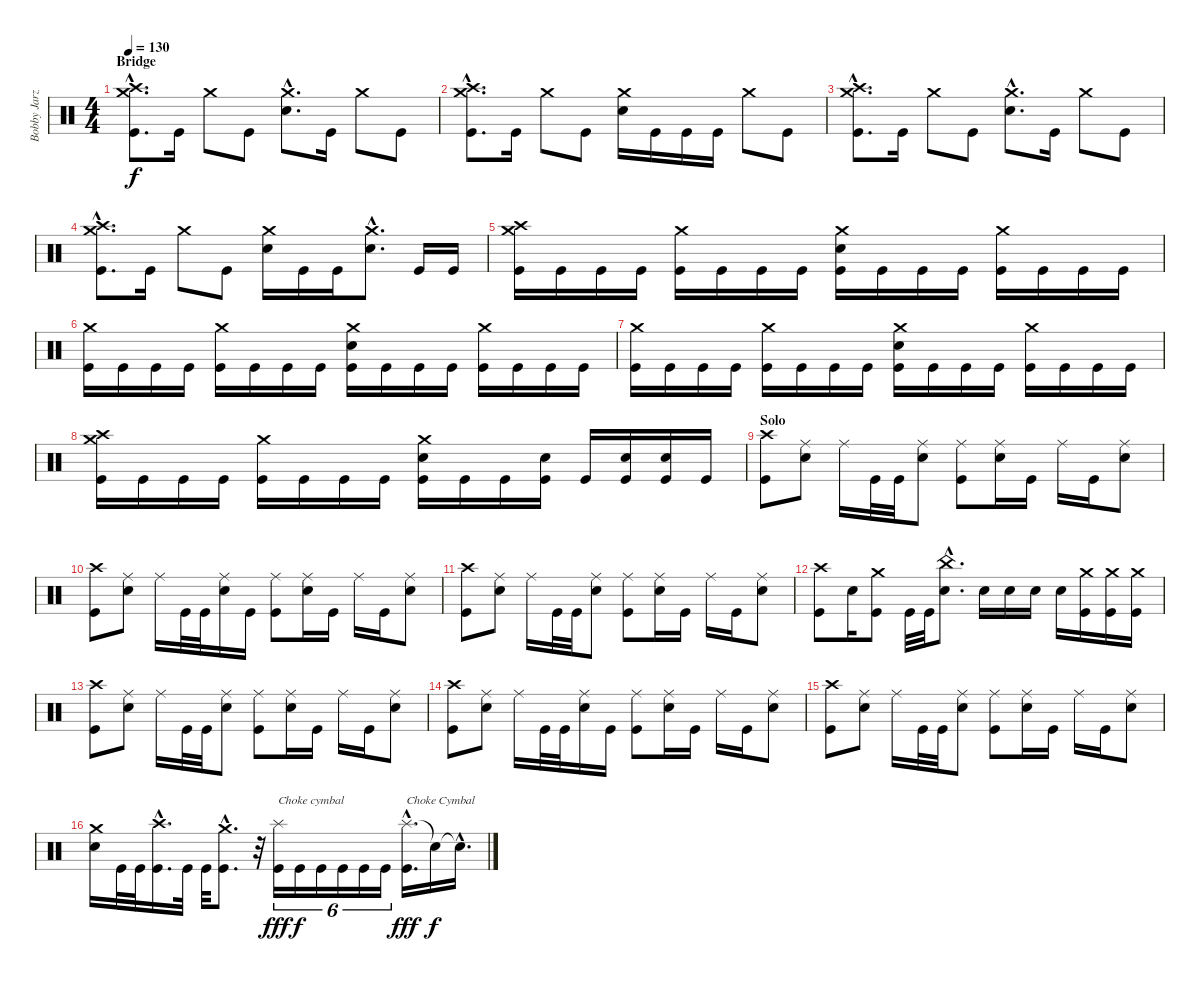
\track ("Bobby Jarzombek" "Bobby Jarz") {instrument percussion}
\staff {score}
\articulation defaults
\ts (4 4)
\section ("" "Bridge")
\tempo 130
\clef neutral
\ks c
("Crash high (hit)"{hac} "Crash medium (hit)"{hac} "Kick (hit)"{hac}).8{d dy f} "Kick (hit)".16 "Crash medium (hit)".8 "Kick (hit)".8 ("Crash medium (hit)"{hac} "Electric Snare (hit)"{hac}).8{d} "Kick (hit)".16 "Crash medium (hit)".8 "Kick (hit)".8 |
("Crash high (hit)"{hac} "Crash medium (hit)"{hac} "Kick (hit)"{hac}).8{d} "Kick (hit)".16 "Crash medium (hit)".8 "Kick (hit)".8 ("Crash medium (hit)" "Electric Snare (hit)").16 "Kick (hit)".16 "Kick (hit)".16 "Kick (hit)".16 "Crash medium (hit)".8 "Kick (hit)".8 |
("Crash high (hit)"{hac} "Crash medium (hit)"{hac} "Kick (hit)"{hac}).8{d} "Kick (hit)".16 "Crash medium (hit)".8 "Kick (hit)".8 ("Crash medium (hit)"{hac} "Electric Snare (hit)"{hac}).8{d} "Kick (hit)".16 "Crash medium (hit)".8 "Kick (hit)".8 |
("Crash high (hit)"{hac} "Crash medium (hit)"{hac} "Kick (hit)"{hac}).8{d} "Kick (hit)".16 "Crash medium (hit)".8 "Kick (hit)".8 ("Crash medium (hit)" "Electric Snare (hit)").16 "Kick (hit)".16 "Kick (hit)".16 ("Crash medium (hit)"{hac} "Electric Snare (hit)"{hac}).8{d} "Kick (hit)".16 "Kick (hit)".16 |
("Crash high (hit)" "Crash medium (hit)" "Kick (hit)").16 "Kick (hit)".16 "Kick (hit)".16 "Kick (hit)".16 ("Crash medium (hit)" "Kick (hit)").16 "Kick (hit)".16 "Kick (hit)".16 "Kick (hit)".16 ("Crash medium (hit)" "Electric Snare (hit)" "Kick (hit)").16 "Kick (hit)".16 "Kick (hit)".16 "Kick (hit)".16 ("Crash medium (hit)" "Kick (hit)").16 "Kick (hit)".16 "Kick (hit)".16 "Kick (hit)".16 |
("Crash medium (hit)" "Kick (hit)").16 "Kick (hit)".16 "Kick (hit)".16 "Kick (hit)".16 ("Crash medium (hit)" "Kick (hit)").16 "Kick (hit)".16 "Kick (hit)".16 "Kick (hit)".16 ("Crash medium (hit)" "Electric Snare (hit)" "Kick (hit)").16 "Kick (hit)".16 "Kick (hit)".16 "Kick (hit)".16 ("Crash medium (hit)" "Kick (hit)").16 "Kick (hit)".16 "Kick (hit)".16 "Kick (hit)".16 |
("Crash medium (hit)" "Kick (hit)").16 "Kick (hit)".16 "Kick (hit)".16 "Kick (hit)".16 ("Crash medium (hit)" "Kick (hit)").16 "Kick (hit)".16 "Kick (hit)".16 "Kick (hit)".16 ("Crash medium (hit)" "Electric Snare (hit)" "Kick (hit)").16 "Kick (hit)".16 "Kick (hit)".16 "Kick (hit)".16 ("Crash medium (hit)" "Kick (hit)").16 "Kick (hit)".16 "Kick (hit)".16 "Kick (hit)".16 |
("Crash high (hit)" "Crash medium (hit)" "Kick (hit)").16 "Kick (hit)".16 "Kick (hit)".16 "Kick (hit)".16 ("Crash medium (hit)" "Kick (hit)").16 "Kick (hit)".16 "Kick (hit)".16 "Kick (hit)".16 ("Crash medium (hit)" "Electric Snare (hit)" "Kick (hit)").16 "Kick (hit)".16 "Kick (hit)".16 ("Electric Snare (hit)" "Kick (hit)").16 "Kick (hit)".16 ("Electric Snare (hit)" "Kick (hit)").16 ("Electric Snare (hit)" "Kick (hit)").16 "Kick (hit)".16 |
\section ("" "Solo")
("Crash high (hit)" "Kick (hit)").8 ("Ride (middle)" "Electric Snare (hit)").8 "Ride (middle)".16 "Kick (hit)".32 "Kick (hit)".32 ("Ride (middle)" "Electric Snare (hit)").8 ("Ride (middle)" "Kick (hit)").8 ("Ride (middle)" "Electric Snare (hit)").16 "Kick (hit)".16 "Ride (middle)".16 "Kick (hit)".16 ("Ride (middle)" "Electric Snare (hit)").8 |
("Crash high (hit)" "Kick (hit)").8 ("Ride (middle)" "Electric Snare (hit)").8 "Ride (middle)".16 "Kick (hit)".32 "Kick (hit)".32 ("Ride (middle)" "Electric Snare (hit)").16 "Kick (hit)".16 ("Ride (middle)" "Kick (hit)").8 ("Ride (middle)" "Electric Snare (hit)").16 "Kick (hit)".16 "Ride (middle)".16 "Kick (hit)".16 ("Ride (middle)" "Electric Snare (hit)").8 |
("Crash high (hit)" "Kick (hit)").8 ("Ride (middle)" "Electric Snare (hit)").8 "Ride (middle)".16 "Kick (hit)".32 "Kick (hit)".32 ("Ride (middle)" "Electric Snare (hit)").8 ("Ride (middle)" "Kick (hit)").8 ("Ride (middle)" "Electric Snare (hit)").16 "Kick (hit)".16 "Ride (middle)".16 "Kick (hit)".16 ("Ride (middle)" "Electric Snare (hit)").8 |
("Crash high (hit)" "Kick (hit)").8 "Electric Snare (hit)".16 ("Crash medium (hit)" "Kick (hit)").8 "Kick (hit)".32 "Kick (hit)".32 ("China (hit)"{hac} "Electric Snare (hit)"{hac}).8{d} "Electric Snare (hit)".16 "Electric Snare (hit)".16 "Electric Snare (hit)".16 "Electric Snare (hit)".16 ("Crash medium (hit)" "Kick (hit)").16 ("Crash medium (hit)" "Kick (hit)").16 ("Crash medium (hit)" "Kick (hit)").16 |
("Crash high (hit)" "Kick (hit)").8 ("Ride (middle)" "Electric Snare (hit)").8 "Ride (middle)".16 "Kick (hit)".32 "Kick (hit)".32 ("Ride (middle)" "Electric Snare (hit)").8 ("Ride (middle)" "Kick (hit)").8 ("Ride (middle)" "Electric Snare (hit)").16 "Kick (hit)".16 "Ride (middle)".16 "Kick (hit)".16 ("Ride (middle)" "Electric Snare (hit)").8 |
("Crash high (hit)" "Kick (hit)").8 ("Ride (middle)" "Electric Snare (hit)").8 "Ride (middle)".16 "Kick (hit)".32 "Kick (hit)".32 ("Ride (middle)" "Electric Snare (hit)").16 "Kick (hit)".16 ("Ride (middle)" "Kick (hit)").8 ("Ride (middle)" "Electric Snare (hit)").16 "Kick (hit)".16 "Ride (middle)".16 "Kick (hit)".16 ("Ride (middle)" "Electric Snare (hit)").8 |
("Crash high (hit)" "Kick (hit)").8 ("Ride (middle)" "Electric Snare (hit)").8 "Ride (middle)".16 "Kick (hit)".32 "Kick (hit)".32 ("Ride (middle)" "Electric Snare (hit)").8 ("Ride (middle)" "Kick (hit)").8 ("Ride (middle)" "Electric Snare (hit)").16 "Kick (hit)".16 "Ride (middle)".16 "Kick (hit)".16 ("Ride (middle)" "Electric Snare (hit)").8 |
("Crash medium (hit)" "Electric Snare (hit)").16 "Kick (hit)".32 "Kick (hit)".32 ("Crash high (hit)"{hac} "Kick (hit)"{hac}).16{d} "Kick (hit)".32 "Kick (hit)".32 ("Crash medium (hit)"{hac} "Kick (hit)"{hac}).8{d} r.32 ("Splash (hit)" "Kick (hit)").16{tu (6 4) txt "Choke cymbal" dy fff} "Kick (hit)".16{tu (6 4) dy f} "Kick (hit)".16{tu (6 4)} "Kick (hit)".16{tu (6 4)} "Kick (hit)".16{tu (6 4)} "Kick (hit)".16{tu (6 4)} ("Splash (hit)"{hac} "Kick (hit)"{hac}).16{d txt "Choke Cymbal" dy fff} "Snare (hit)"{t}.16{dy f volume 0} "Snare (hit)"{hac t}.16{d}
